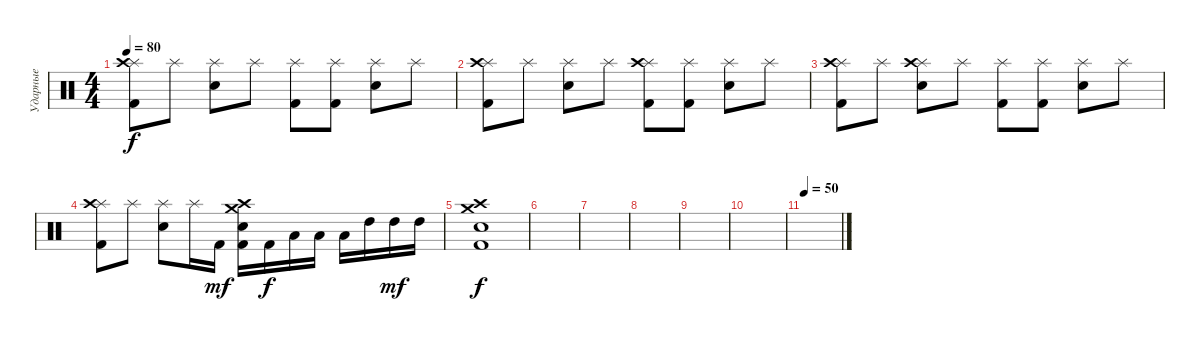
\track ("Ударные" "Ударные") {instrument percussion}
\staff {score}
\articulation defaults
\ts (4 4)
\tempo 80
\clef neutral
\ks c
("Splash (hit)" "Crash high (hit)" "Kick (hit) 2").8{dy f} "Splash (hit)".8 ("Splash (hit)" "Snare (hit) 2").8 "Splash (hit)".8 ("Splash (hit)" "Kick (hit) 2").8 ("Splash (hit)" "Kick (hit) 2").8 ("Splash (hit)" "Snare (hit) 2").8 "Splash (hit)".8 |
("Splash (hit)" "Crash high (hit)" "Kick (hit) 2").8 "Splash (hit)".8 ("Splash (hit)" "Snare (hit) 2").8 "Splash (hit)".8 ("Splash (hit)" "Crash high (hit)" "Kick (hit) 2").8 ("Splash (hit)" "Kick (hit) 2").8 ("Splash (hit)" "Snare (hit) 2").8 "Splash (hit)".8 |
("Splash (hit)" "Crash high (hit)" "Kick (hit) 2").8 "Splash (hit)".8 ("Splash (hit)" "Crash high (hit)" "Snare (hit) 2").8 "Splash (hit)".8 ("Splash (hit)" "Kick (hit) 2").8 ("Splash (hit)" "Kick (hit) 2").8 ("Splash (hit)" "Snare (hit) 2").8 "Splash (hit)".8 |
("Splash (hit)" "Crash high (hit)" "Kick (hit) 2").8 "Splash (hit)".8 ("Splash (hit)" "Snare (hit) 2").8 "Splash (hit)".16 "Kick (hit) 2".16{dy mf} ("Crash medium (hit)" "Crash high (hit)" "Snare (hit) 2" "Kick (hit) 2").16 "Kick (hit) 2".16{dy f} "Low Tom (hit)".16 "Low Tom (hit)".16 "Low Tom (hit)".16 "High Tom (hit)".16 "High Tom (hit)".16{dy mf} "High Tom (hit)".16 |
("Crash high (hit)" "Crash medium (hit)" "Snare (hit) 2" "Kick (hit) 2").1{dy f} |
|
|
|
|
|
\tempo 50
